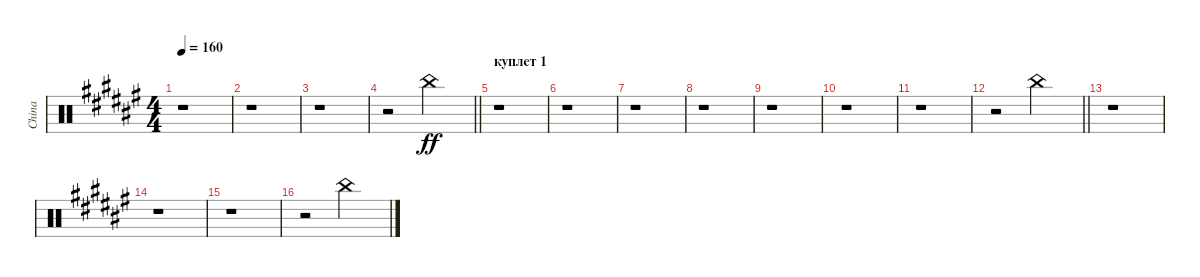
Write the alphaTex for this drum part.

\track ("China" "China") {instrument percussion}
\staff {score}
\articulation defaults
\ts (4 4)
\tempo 160
\clef neutral
\ks d#minor
r.1{dy f} |
r.1 |
r.1 |
\barLineRight lightlight
r.2 "China (hit)".2{dy ff} |
\section ("" "куплет 1")
r.1 |
r.1 |
r.1 |
r.1 |
r.1 |
r.1 |
r.1 |
\barLineRight lightlight
r.2 "China (hit)".2 |
r.1 |
r.1 |
r.1 |
r.2 "China (hit)".2
